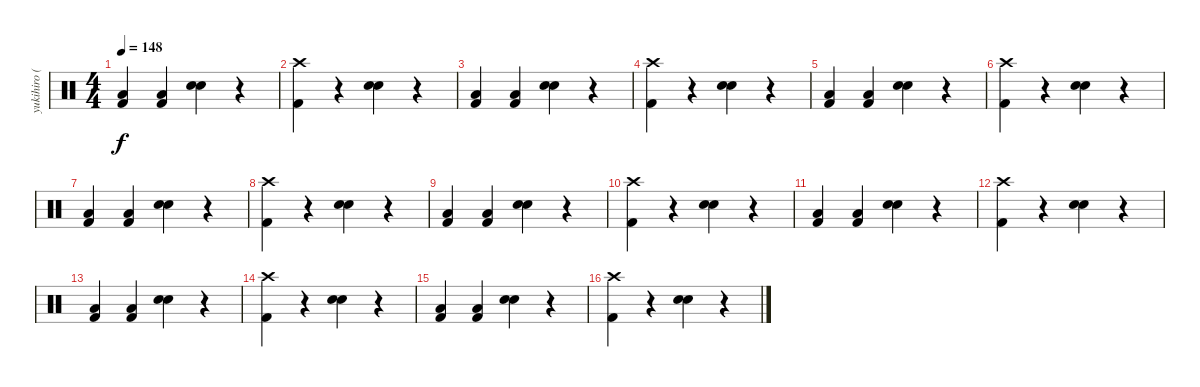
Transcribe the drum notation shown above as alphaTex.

\track ("yukihiro (Drums)" "yukihiro (") {instrument percussion}
\staff {score}
\articulation defaults
\ts (4 4)
\tempo 148
\clef neutral
\ks c
("Low Tom (hit)" "Kick (hit) 2").4{dy f} ("Low Tom (hit)" "Kick (hit) 2").4 ("Electric Snare (hit)" "Electric Snare (hit)").4 r.4 |
("Crash high (hit)" "Kick (hit) 2").4 r.4 ("Electric Snare (hit)" "Electric Snare (hit)").4 r.4 |
("Low Tom (hit)" "Kick (hit) 2").4 ("Low Tom (hit)" "Kick (hit) 2").4 ("Electric Snare (hit)" "Electric Snare (hit)").4 r.4 |
("Crash high (hit)" "Kick (hit) 2").4 r.4 ("Electric Snare (hit)" "Electric Snare (hit)").4 r.4 |
("Low Tom (hit)" "Kick (hit) 2").4 ("Low Tom (hit)" "Kick (hit) 2").4 ("Electric Snare (hit)" "Electric Snare (hit)").4 r.4 |
("Crash high (hit)" "Kick (hit) 2").4 r.4 ("Electric Snare (hit)" "Electric Snare (hit)").4 r.4 |
("Low Tom (hit)" "Kick (hit) 2").4 ("Low Tom (hit)" "Kick (hit) 2").4 ("Electric Snare (hit)" "Electric Snare (hit)").4 r.4 |
("Crash high (hit)" "Kick (hit) 2").4 r.4 ("Electric Snare (hit)" "Electric Snare (hit)").4 r.4 |
("Low Tom (hit)" "Kick (hit) 2").4 ("Low Tom (hit)" "Kick (hit) 2").4 ("Electric Snare (hit)" "Electric Snare (hit)").4 r.4 |
("Crash high (hit)" "Kick (hit) 2").4 r.4 ("Electric Snare (hit)" "Electric Snare (hit)").4 r.4 |
("Low Tom (hit)" "Kick (hit) 2").4 ("Low Tom (hit)" "Kick (hit) 2").4 ("Electric Snare (hit)" "Electric Snare (hit)").4 r.4 |
("Crash high (hit)" "Kick (hit) 2").4 r.4 ("Electric Snare (hit)" "Electric Snare (hit)").4 r.4 |
("Low Tom (hit)" "Kick (hit) 2").4 ("Low Tom (hit)" "Kick (hit) 2").4 ("Electric Snare (hit)" "Electric Snare (hit)").4 r.4 |
("Crash high (hit)" "Kick (hit) 2").4 r.4 ("Electric Snare (hit)" "Electric Snare (hit)").4 r.4 |
("Low Tom (hit)" "Kick (hit) 2").4 ("Low Tom (hit)" "Kick (hit) 2").4 ("Electric Snare (hit)" "Electric Snare (hit)").4 r.4 |
("Crash high (hit)" "Kick (hit) 2").4 r.4 ("Electric Snare (hit)" "Electric Snare (hit)").4 r.4
